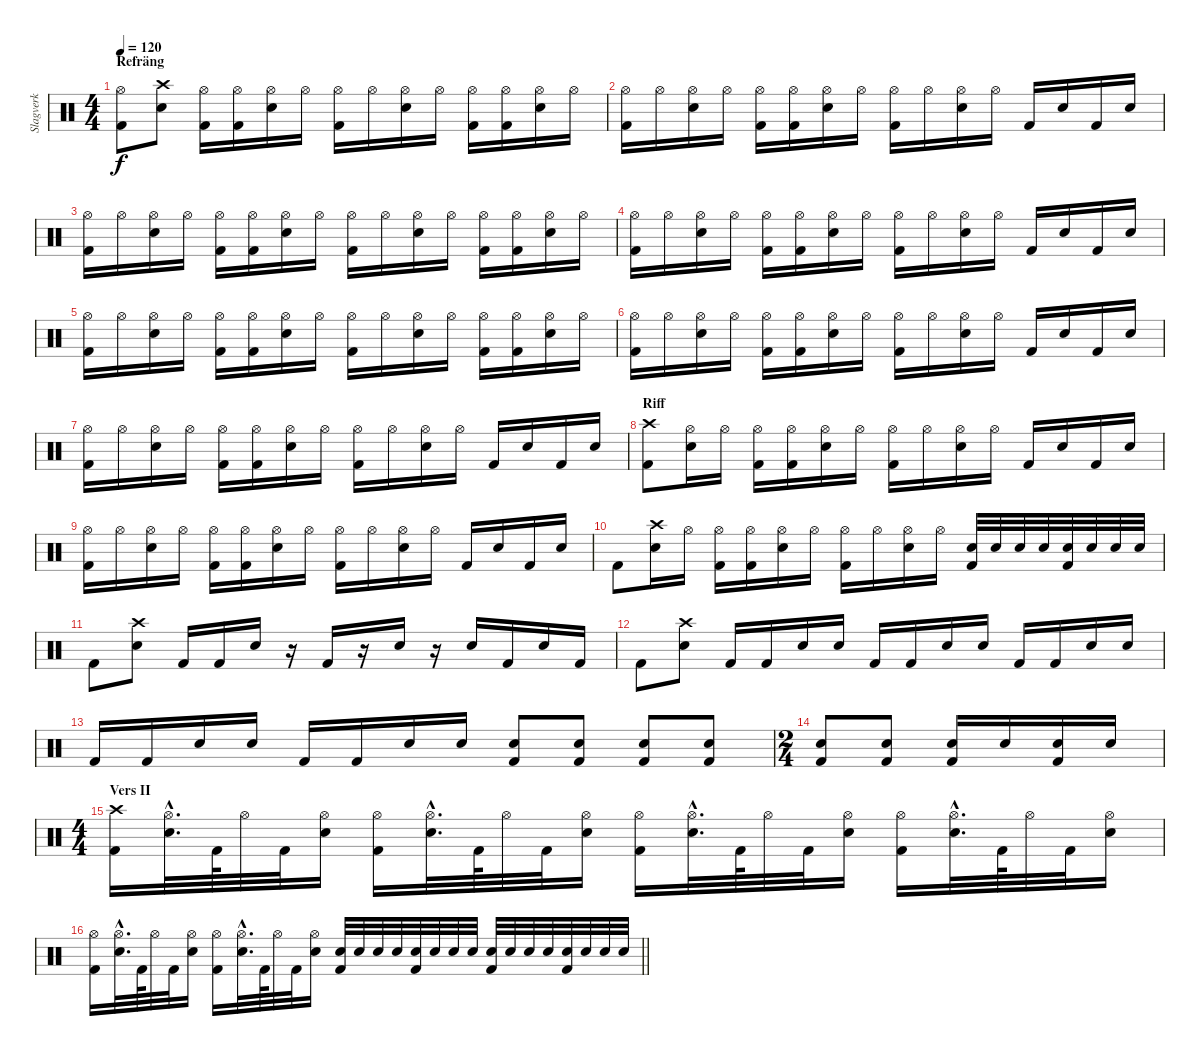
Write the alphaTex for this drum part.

\track ("Slagverk" "Slagverk") {instrument percussion}
\staff {score}
\articulation defaults
\ts (4 4)
\section ("" "Refräng")
\tempo 120
\clef neutral
\ks c
("Hi-Hat (open)" "Kick (hit) 2").8{dy f} ("Crash high (hit)" "Electric Snare (hit)").8 ("Hi-Hat (open)" "Kick (hit) 2").16 ("Hi-Hat (open)" "Kick (hit) 2").16 ("Hi-Hat (open)" "Electric Snare (hit)").16 "Hi-Hat (open)".16 ("Hi-Hat (open)" "Kick (hit) 2").16 "Hi-Hat (open)".16 ("Hi-Hat (open)" "Electric Snare (hit)").16 "Hi-Hat (open)".16 ("Hi-Hat (open)" "Kick (hit) 2").16 ("Hi-Hat (open)" "Kick (hit) 2").16 ("Hi-Hat (open)" "Electric Snare (hit)").16 "Hi-Hat (open)".16 |
("Hi-Hat (open)" "Kick (hit) 2").16 "Hi-Hat (open)".16 ("Hi-Hat (open)" "Electric Snare (hit)").16 "Hi-Hat (open)".16 ("Hi-Hat (open)" "Kick (hit) 2").16 ("Hi-Hat (open)" "Kick (hit) 2").16 ("Hi-Hat (open)" "Electric Snare (hit)").16 "Hi-Hat (open)".16 ("Hi-Hat (open)" "Kick (hit) 2").16 "Hi-Hat (open)".16 ("Hi-Hat (open)" "Electric Snare (hit)").16 "Hi-Hat (open)".16 "Kick (hit) 2".16 "Electric Snare (hit)".16 "Kick (hit) 2".16 "Electric Snare (hit)".16 |
("Hi-Hat (open)" "Kick (hit) 2").16 "Hi-Hat (open)".16 ("Hi-Hat (open)" "Electric Snare (hit)").16 "Hi-Hat (open)".16 ("Hi-Hat (open)" "Kick (hit) 2").16 ("Hi-Hat (open)" "Kick (hit) 2").16 ("Hi-Hat (open)" "Electric Snare (hit)").16 "Hi-Hat (open)".16 ("Hi-Hat (open)" "Kick (hit) 2").16 "Hi-Hat (open)".16 ("Hi-Hat (open)" "Electric Snare (hit)").16 "Hi-Hat (open)".16 ("Hi-Hat (open)" "Kick (hit) 2").16 ("Hi-Hat (open)" "Kick (hit) 2").16 ("Hi-Hat (open)" "Electric Snare (hit)").16 "Hi-Hat (open)".16 |
("Hi-Hat (open)" "Kick (hit) 2").16 "Hi-Hat (open)".16 ("Hi-Hat (open)" "Electric Snare (hit)").16 "Hi-Hat (open)".16 ("Hi-Hat (open)" "Kick (hit) 2").16 ("Hi-Hat (open)" "Kick (hit) 2").16 ("Hi-Hat (open)" "Electric Snare (hit)").16 "Hi-Hat (open)".16 ("Hi-Hat (open)" "Kick (hit) 2").16 "Hi-Hat (open)".16 ("Hi-Hat (open)" "Electric Snare (hit)").16 "Hi-Hat (open)".16 "Kick (hit) 2".16 "Electric Snare (hit)".16 "Kick (hit) 2".16 "Electric Snare (hit)".16 |
("Hi-Hat (open)" "Kick (hit) 2").16 "Hi-Hat (open)".16 ("Hi-Hat (open)" "Electric Snare (hit)").16 "Hi-Hat (open)".16 ("Hi-Hat (open)" "Kick (hit) 2").16 ("Hi-Hat (open)" "Kick (hit) 2").16 ("Hi-Hat (open)" "Electric Snare (hit)").16 "Hi-Hat (open)".16 ("Hi-Hat (open)" "Kick (hit) 2").16 "Hi-Hat (open)".16 ("Hi-Hat (open)" "Electric Snare (hit)").16 "Hi-Hat (open)".16 ("Hi-Hat (open)" "Kick (hit) 2").16 ("Hi-Hat (open)" "Kick (hit) 2").16 ("Hi-Hat (open)" "Electric Snare (hit)").16 "Hi-Hat (open)".16 |
("Hi-Hat (open)" "Kick (hit) 2").16 "Hi-Hat (open)".16 ("Hi-Hat (open)" "Electric Snare (hit)").16 "Hi-Hat (open)".16 ("Hi-Hat (open)" "Kick (hit) 2").16 ("Hi-Hat (open)" "Kick (hit) 2").16 ("Hi-Hat (open)" "Electric Snare (hit)").16 "Hi-Hat (open)".16 ("Hi-Hat (open)" "Kick (hit) 2").16 "Hi-Hat (open)".16 ("Hi-Hat (open)" "Electric Snare (hit)").16 "Hi-Hat (open)".16 "Kick (hit) 2".16 "Electric Snare (hit)".16 "Kick (hit) 2".16 "Electric Snare (hit)".16 |
("Hi-Hat (open)" "Kick (hit) 2").16 "Hi-Hat (open)".16 ("Hi-Hat (open)" "Electric Snare (hit)").16 "Hi-Hat (open)".16 ("Hi-Hat (open)" "Kick (hit) 2").16 ("Hi-Hat (open)" "Kick (hit) 2").16 ("Hi-Hat (open)" "Electric Snare (hit)").16 "Hi-Hat (open)".16 ("Hi-Hat (open)" "Kick (hit) 2").16 "Hi-Hat (open)".16 ("Hi-Hat (open)" "Electric Snare (hit)").16 "Hi-Hat (open)".16 "Kick (hit) 2".16 "Electric Snare (hit)".16 "Kick (hit) 2".16 "Electric Snare (hit)".16 |
\section ("" "Riff")
("Crash high (hit)" "Kick (hit) 2").8 ("Hi-Hat (open)" "Electric Snare (hit)").16 "Hi-Hat (open)".16 ("Hi-Hat (open)" "Kick (hit) 2").16 ("Hi-Hat (open)" "Kick (hit) 2").16 ("Hi-Hat (open)" "Electric Snare (hit)").16 "Hi-Hat (open)".16 ("Hi-Hat (open)" "Kick (hit) 2").16 "Hi-Hat (open)".16 ("Hi-Hat (open)" "Electric Snare (hit)").16 "Hi-Hat (open)".16 "Kick (hit) 2".16 "Electric Snare (hit)".16 "Kick (hit) 2".16 "Electric Snare (hit)".16 |
("Hi-Hat (open)" "Kick (hit) 2").16 "Hi-Hat (open)".16 ("Hi-Hat (open)" "Electric Snare (hit)").16 "Hi-Hat (open)".16 ("Hi-Hat (open)" "Kick (hit) 2").16 ("Hi-Hat (open)" "Kick (hit) 2").16 ("Hi-Hat (open)" "Electric Snare (hit)").16 "Hi-Hat (open)".16 ("Hi-Hat (open)" "Kick (hit) 2").16 "Hi-Hat (open)".16 ("Hi-Hat (open)" "Electric Snare (hit)").16 "Hi-Hat (open)".16 "Kick (hit) 2".16 "Electric Snare (hit)".16 "Kick (hit) 2".16 "Electric Snare (hit)".16 |
"Kick (hit) 2".8 ("Crash high (hit)" "Electric Snare (hit)").16 "Hi-Hat (open)".16 ("Hi-Hat (open)" "Kick (hit) 2").16 ("Hi-Hat (open)" "Kick (hit) 2").16 ("Hi-Hat (open)" "Electric Snare (hit)").16 "Hi-Hat (open)".16 ("Hi-Hat (open)" "Kick (hit) 2").16 "Hi-Hat (open)".16 ("Hi-Hat (open)" "Electric Snare (hit)").16 "Hi-Hat (open)".16 ("Electric Snare (hit)" "Kick (hit) 2").32 "Electric Snare (hit)".32 "Electric Snare (hit)".32 "Electric Snare (hit)".32 ("Electric Snare (hit)" "Kick (hit) 2").32 "Electric Snare (hit)".32 "Electric Snare (hit)".32 "Electric Snare (hit)".32 |
"Kick (hit) 2".8 ("Crash high (hit)" "Electric Snare (hit)").8 "Kick (hit) 2".16 "Kick (hit) 2".16 "Electric Snare (hit)".16 r.16 "Kick (hit) 2".16 r.16 "Electric Snare (hit)".16 r.16 "Electric Snare (hit)".16 "Kick (hit) 2".16 "Electric Snare (hit)".16 "Kick (hit) 2".16 |
"Kick (hit) 2".8 ("Crash high (hit)" "Electric Snare (hit)").8 "Kick (hit) 2".16 "Kick (hit) 2".16 "Electric Snare (hit)".16 "Electric Snare (hit)".16 "Kick (hit) 2".16 "Kick (hit) 2".16 "Electric Snare (hit)".16 "Electric Snare (hit)".16 "Kick (hit) 2".16 "Kick (hit) 2".16 "Electric Snare (hit)".16 "Electric Snare (hit)".16 |
"Kick (hit) 2".16 "Kick (hit) 2".16 "Electric Snare (hit)".16 "Electric Snare (hit)".16 "Kick (hit) 2".16 "Kick (hit) 2".16 "Electric Snare (hit)".16 "Electric Snare (hit)".16 ("Electric Snare (hit)" "Kick (hit) 2").8 ("Electric Snare (hit)" "Kick (hit) 2").8 ("Electric Snare (hit)" "Kick (hit) 2").8 ("Electric Snare (hit)" "Kick (hit) 2").8 |
\ts (2 4)
("Electric Snare (hit)" "Kick (hit) 2").8 ("Electric Snare (hit)" "Kick (hit) 2").8 ("Electric Snare (hit)" "Kick (hit) 2").16 "Electric Snare (hit)".16 ("Electric Snare (hit)" "Kick (hit) 2").16 "Electric Snare (hit)".16 |
\ts (4 4)
\section ("" "Vers II")
("Crash high (hit)" "Kick (hit) 2").16 ("Hi-Hat (open)"{hac} "Electric Snare (hit)"{hac}).32{d} "Kick (hit) 2".64 "Hi-Hat (open)".32 "Kick (hit) 2".32 ("Hi-Hat (open)" "Electric Snare (hit)").16 ("Hi-Hat (open)" "Kick (hit) 2").16 ("Hi-Hat (open)"{hac} "Electric Snare (hit)"{hac}).32{d} "Kick (hit) 2".64 "Hi-Hat (open)".32 "Kick (hit) 2".32 ("Hi-Hat (open)" "Electric Snare (hit)").16 ("Hi-Hat (open)" "Kick (hit) 2").16 ("Hi-Hat (open)"{hac} "Electric Snare (hit)"{hac}).32{d} "Kick (hit) 2".64 "Hi-Hat (open)".32 "Kick (hit) 2".32 ("Hi-Hat (open)" "Electric Snare (hit)").16 ("Hi-Hat (open)" "Kick (hit) 2").16 ("Hi-Hat (open)"{hac} "Electric Snare (hit)"{hac}).32{d} "Kick (hit) 2".64 "Hi-Hat (open)".32 "Kick (hit) 2".32 ("Hi-Hat (open)" "Electric Snare (hit)").16 |
\barLineRight lightlight
("Hi-Hat (open)" "Kick (hit) 2").16 ("Hi-Hat (open)"{hac} "Electric Snare (hit)"{hac}).32{d} "Kick (hit) 2".64 "Hi-Hat (open)".32 "Kick (hit) 2".32 ("Hi-Hat (open)" "Electric Snare (hit)").16 ("Hi-Hat (open)" "Kick (hit) 2").16 ("Hi-Hat (open)"{hac} "Electric Snare (hit)"{hac}).32{d} "Kick (hit) 2".64 "Hi-Hat (open)".32 "Kick (hit) 2".32 ("Hi-Hat (open)" "Electric Snare (hit)").16 ("Electric Snare (hit)" "Kick (hit) 2").32 "Electric Snare (hit)".32 "Electric Snare (hit)".32 "Electric Snare (hit)".32 ("Electric Snare (hit)" "Kick (hit) 2").32 "Electric Snare (hit)".32 "Electric Snare (hit)".32 "Electric Snare (hit)".32 ("Electric Snare (hit)" "Kick (hit) 2").32 "Electric Snare (hit)".32 "Electric Snare (hit)".32 "Electric Snare (hit)".32 ("Electric Snare (hit)" "Kick (hit) 2").32 "Electric Snare (hit)".32 "Electric Snare (hit)".32 "Electric Snare (hit)".32
